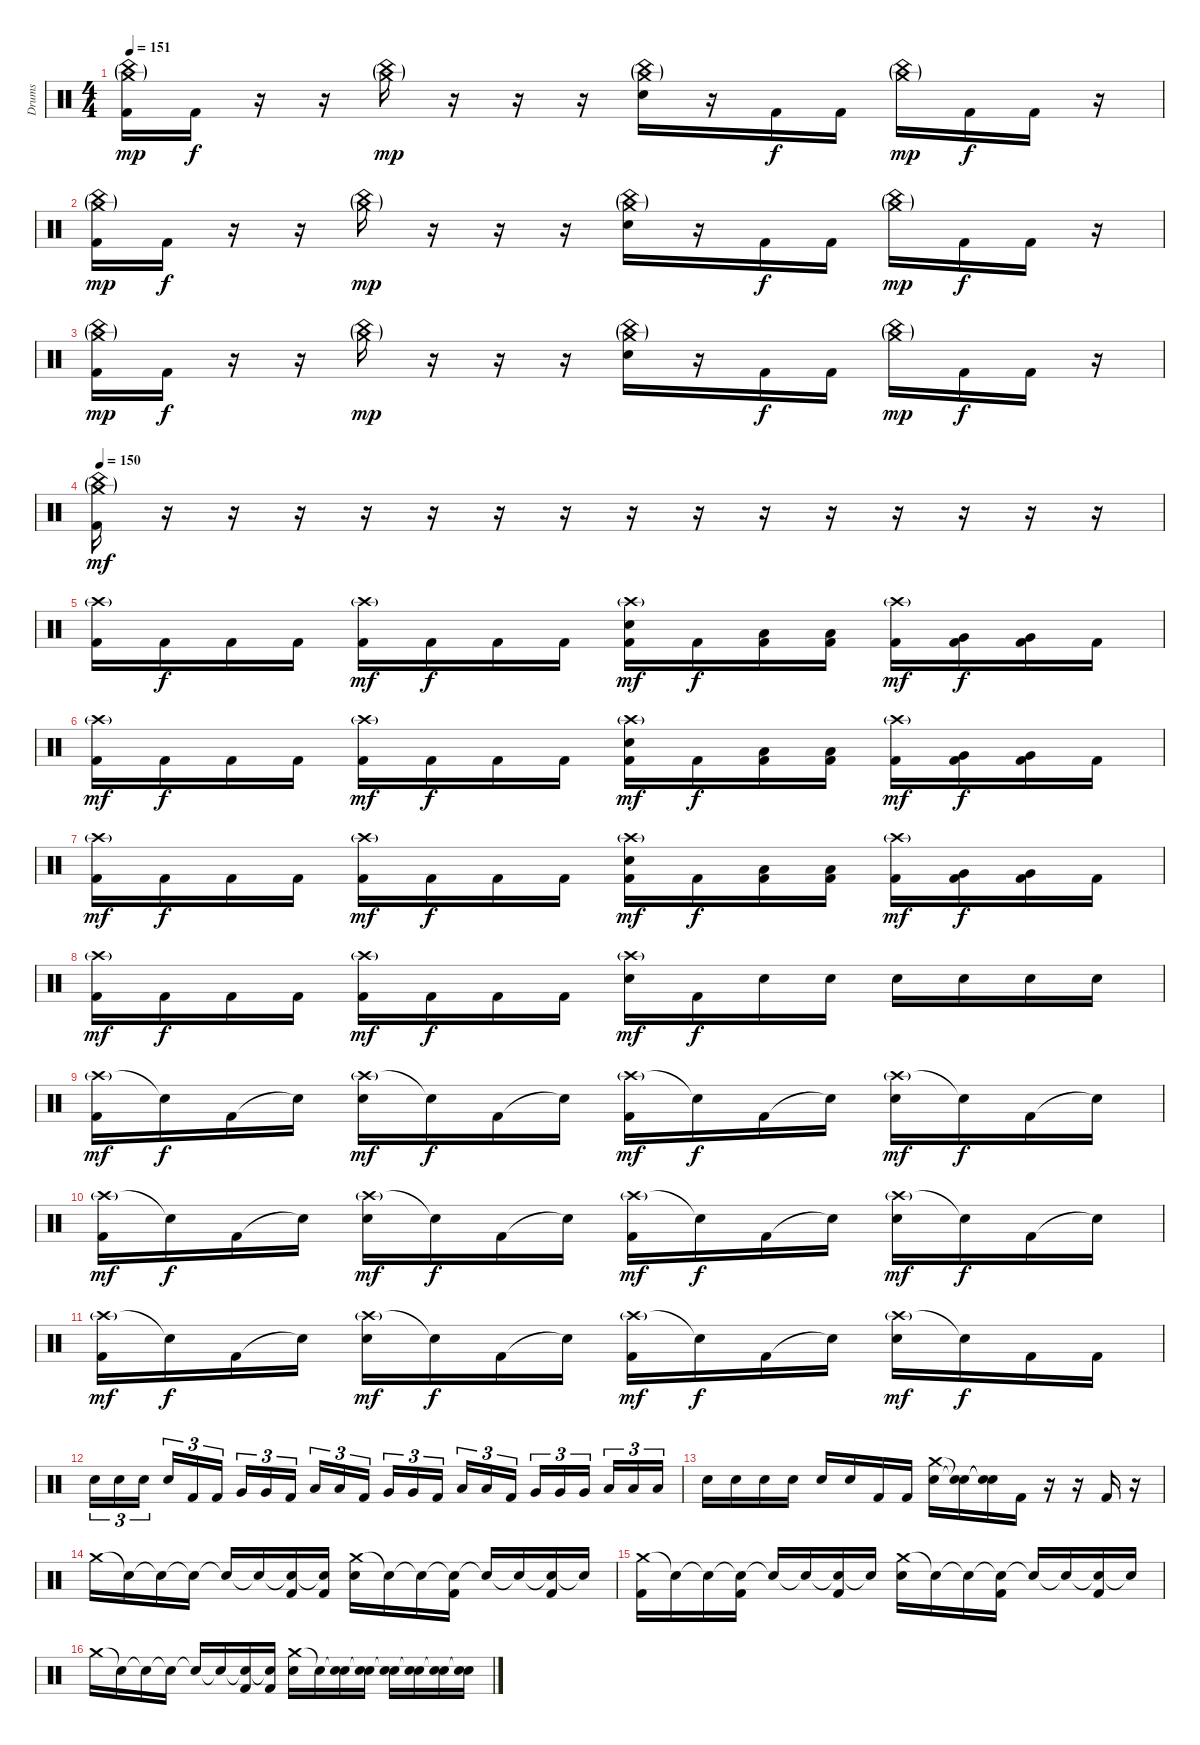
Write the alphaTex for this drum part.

\track ("Drums" "Drums") {instrument percussion}
\staff {score}
\articulation defaults
\ts (4 4)
\tempo 151
\clef neutral
\ks c
("China (hit)"{g} "Crash medium (hit)"{g} "Kick (hit) 2").16{dy mp} "Kick (hit) 2".16{dy f} r.16 r.16 ("China (hit)"{g} "Crash medium (hit)"{g}).16{dy mp} r.16 r.16 r.16 ("China (hit)"{g} "Crash medium (hit)"{g} "Electric Snare (hit)").16 r.16 "Kick (hit) 2".16{dy f} "Kick (hit) 2".16 ("China (hit)"{g} "Crash medium (hit)"{g}).16{dy mp} "Kick (hit) 2".16{dy f} "Kick (hit) 2".16 r.16 |
("China (hit)"{g} "Crash medium (hit)"{g} "Kick (hit) 2").16{dy mp} "Kick (hit) 2".16{dy f} r.16 r.16 ("China (hit)"{g} "Crash medium (hit)"{g}).16{dy mp} r.16 r.16 r.16 ("China (hit)"{g} "Crash medium (hit)"{g} "Electric Snare (hit)").16 r.16 "Kick (hit) 2".16{dy f} "Kick (hit) 2".16 ("China (hit)"{g} "Crash medium (hit)"{g}).16{dy mp} "Kick (hit) 2".16{dy f} "Kick (hit) 2".16 r.16 |
("China (hit)"{g} "Crash medium (hit)"{g} "Kick (hit) 2").16{dy mp} "Kick (hit) 2".16{dy f} r.16 r.16 ("China (hit)"{g} "Crash medium (hit)"{g}).16{dy mp} r.16 r.16 r.16 ("China (hit)"{g} "Crash medium (hit)"{g} "Electric Snare (hit)").16 r.16 "Kick (hit) 2".16{dy f} "Kick (hit) 2".16 ("China (hit)"{g} "Crash medium (hit)"{g}).16{dy mp} "Kick (hit) 2".16{dy f} "Kick (hit) 2".16 r.16 |
\tempo 150
("China (hit)"{g} "Crash medium (hit)"{g} "Kick (hit) 2").16{dy mf} r.16 r.16 r.16 r.16 r.16 r.16 r.16 r.16 r.16 r.16 r.16 r.16 r.16 r.16 r.16 |
("Crash high (hit)"{g} "Kick (hit) 2").16 "Kick (hit) 2".16{dy f} "Kick (hit) 2".16 "Kick (hit) 2".16 ("Crash high (hit)"{g} "Kick (hit) 2").16{dy mf} "Kick (hit) 2".16{dy f} "Kick (hit) 2".16 "Kick (hit) 2".16 ("Crash high (hit)"{g} "Electric Snare (hit)" "Kick (hit) 2").16{dy mf} "Kick (hit) 2".16{dy f} ("Low Tom (hit)" "Kick (hit) 2").16 ("Low Tom (hit)" "Kick (hit) 2").16 ("Crash high (hit)"{g} "Kick (hit) 2").16{dy mf} ("Very Low Tom (hit)" "Kick (hit) 2").16{dy f} ("Very Low Tom (hit)" "Kick (hit) 2").16 "Kick (hit) 2".16 |
("Crash high (hit)"{g} "Kick (hit) 2").16{dy mf} "Kick (hit) 2".16{dy f} "Kick (hit) 2".16 "Kick (hit) 2".16 ("Crash high (hit)"{g} "Kick (hit) 2").16{dy mf} "Kick (hit) 2".16{dy f} "Kick (hit) 2".16 "Kick (hit) 2".16 ("Crash high (hit)"{g} "Electric Snare (hit)" "Kick (hit) 2").16{dy mf} "Kick (hit) 2".16{dy f} ("Low Tom (hit)" "Kick (hit) 2").16 ("Low Tom (hit)" "Kick (hit) 2").16 ("Crash high (hit)"{g} "Kick (hit) 2").16{dy mf} ("Very Low Tom (hit)" "Kick (hit) 2").16{dy f} ("Very Low Tom (hit)" "Kick (hit) 2").16 "Kick (hit) 2".16 |
("Crash high (hit)"{g} "Kick (hit) 2").16{dy mf} "Kick (hit) 2".16{dy f} "Kick (hit) 2".16 "Kick (hit) 2".16 ("Crash high (hit)"{g} "Kick (hit) 2").16{dy mf} "Kick (hit) 2".16{dy f} "Kick (hit) 2".16 "Kick (hit) 2".16 ("Crash high (hit)"{g} "Electric Snare (hit)" "Kick (hit) 2").16{dy mf} "Kick (hit) 2".16{dy f} ("Low Tom (hit)" "Kick (hit) 2").16 ("Low Tom (hit)" "Kick (hit) 2").16 ("Crash high (hit)"{g} "Kick (hit) 2").16{dy mf} ("Very Low Tom (hit)" "Kick (hit) 2").16{dy f} ("Very Low Tom (hit)" "Kick (hit) 2").16 "Kick (hit) 2".16 |
("Crash high (hit)"{g} "Kick (hit) 2").16{dy mf} "Kick (hit) 2".16{dy f} "Kick (hit) 2".16 "Kick (hit) 2".16 ("Crash high (hit)"{g} "Kick (hit) 2").16{dy mf} "Kick (hit) 2".16{dy f} "Kick (hit) 2".16 "Kick (hit) 2".16 ("Crash high (hit)"{g} "Electric Snare (hit)").16{dy mf} "Kick (hit) 2".16{dy f} "Electric Snare (hit)".16 "Electric Snare (hit)".16 "Electric Snare (hit)".16 "Electric Snare (hit)".16 "Electric Snare (hit)".16 "Electric Snare (hit)".16 |
("Crash high (hit)"{g} "Kick (hit) 2").16{dy mf} "Snare (hit)"{t}.16{dy f} "Kick (hit) 2".16 "Snare (hit)"{t}.16 ("Crash high (hit)"{g} "Electric Snare (hit)").16{dy mf} "Snare (hit)"{t}.16{dy f} "Kick (hit) 2".16 "Snare (hit)"{t}.16 ("Crash high (hit)"{g} "Kick (hit) 2").16{dy mf} "Snare (hit)"{t}.16{dy f} "Kick (hit) 2".16 "Snare (hit)"{t}.16 ("Crash high (hit)"{g} "Electric Snare (hit)").16{dy mf} "Snare (hit)"{t}.16{dy f} "Kick (hit) 2".16 "Snare (hit)"{t}.16 |
("Crash high (hit)"{g} "Kick (hit) 2").16{dy mf} "Snare (hit)"{t}.16{dy f} "Kick (hit) 2".16 "Snare (hit)"{t}.16 ("Crash high (hit)"{g} "Electric Snare (hit)").16{dy mf} "Snare (hit)"{t}.16{dy f} "Kick (hit) 2".16 "Snare (hit)"{t}.16 ("Crash high (hit)"{g} "Kick (hit) 2").16{dy mf} "Snare (hit)"{t}.16{dy f} "Kick (hit) 2".16 "Snare (hit)"{t}.16 ("Crash high (hit)"{g} "Electric Snare (hit)").16{dy mf} "Snare (hit)"{t}.16{dy f} "Kick (hit) 2".16 "Snare (hit)"{t}.16 |
("Crash high (hit)"{g} "Kick (hit) 2").16{dy mf} "Snare (hit)"{t}.16{dy f} "Kick (hit) 2".16 "Snare (hit)"{t}.16 ("Crash high (hit)"{g} "Electric Snare (hit)").16{dy mf} "Snare (hit)"{t}.16{dy f} "Kick (hit) 2".16 "Snare (hit)"{t}.16 ("Crash high (hit)"{g} "Kick (hit) 2").16{dy mf} "Snare (hit)"{t}.16{dy f} "Kick (hit) 2".16 "Snare (hit)"{t}.16 ("Crash high (hit)"{g} "Electric Snare (hit)").16{dy mf} "Snare (hit)"{t}.16{dy f} "Kick (hit) 2".16 "Kick (hit) 2".16 |
"Electric Snare (hit)".16{tu (3 2)} "Electric Snare (hit)".16{tu (3 2)} "Electric Snare (hit)".16{tu (3 2) beam splitsecondary} "Electric Snare (hit)".16{tu (3 2)} "Kick (hit) 2".16{tu (3 2)} "Kick (hit) 2".16{tu (3 2)} "Very Low Tom (hit)".16{tu (3 2)} "Very Low Tom (hit)".16{tu (3 2)} "Kick (hit) 2".16{tu (3 2) beam splitsecondary} "Low Floor Tom (hit)".16{tu (3 2)} "Low Floor Tom (hit)".16{tu (3 2)} "Kick (hit) 2".16{tu (3 2)} "Very Low Tom (hit)".16{tu (3 2)} "Very Low Tom (hit)".16{tu (3 2)} "Kick (hit) 2".16{tu (3 2) beam splitsecondary} "Low Floor Tom (hit)".16{tu (3 2)} "Low Floor Tom (hit)".16{tu (3 2)} "Kick (hit) 2".16{tu (3 2)} "Very Low Tom (hit)".16{tu (3 2)} "Very Low Tom (hit)".16{tu (3 2)} "Very Low Tom (hit)".16{tu (3 2) beam splitsecondary} "Low Floor Tom (hit)".16{tu (3 2)} "Low Floor Tom (hit)".16{tu (3 2)} "Low Floor Tom (hit)".16{tu (3 2)} |
"Electric Snare (hit)".16 "Electric Snare (hit)".16 "Electric Snare (hit)".16 "Electric Snare (hit)".16 "Electric Snare (hit)".16 "Electric Snare (hit)".16 "Kick (hit) 2".16 "Kick (hit) 2".16 ("Crash medium (hit)" "Electric Snare (hit)").16 ("Snare (hit)"{t} "Snare (hit)"{t}).16 ("Snare (hit)"{t} "Snare (hit)"{t}).16 "Kick (hit) 2".16 r.16 r.16 "Kick (hit) 2".16 r.16 |
"Crash medium (hit)".16 "Snare (hit)"{t}.16 "Snare (hit)"{t}.16 "Snare (hit)"{t}.16 "Snare (hit)"{t}.16 "Snare (hit)"{t}.16 ("Snare (hit)"{t} "Kick (hit) 2").16 ("Snare (hit)"{t} "Kick (hit) 2").16 ("Crash medium (hit)" "Electric Snare (hit)").16 "Snare (hit)"{t}.16 "Snare (hit)"{t}.16 ("Snare (hit)"{t} "Kick (hit) 2").16 "Snare (hit)"{t}.16 "Snare (hit)"{t}.16 ("Snare (hit)"{t} "Kick (hit) 2").16 "Snare (hit)"{t}.16 |
("Crash medium (hit)" "Kick (hit) 2").16 "Snare (hit)"{t}.16 "Snare (hit)"{t}.16 ("Snare (hit)"{t} "Kick (hit) 2").16 "Snare (hit)"{t}.16 "Snare (hit)"{t}.16 ("Snare (hit)"{t} "Kick (hit) 2").16 "Snare (hit)"{t}.16 ("Crash medium (hit)" "Electric Snare (hit)").16 "Snare (hit)"{t}.16 "Snare (hit)"{t}.16 ("Snare (hit)"{t} "Kick (hit) 2").16 "Snare (hit)"{t}.16 "Snare (hit)"{t}.16 ("Snare (hit)"{t} "Kick (hit) 2").16 "Snare (hit)"{t}.16 |
"Crash medium (hit)".16 "Snare (hit)"{t}.16 "Snare (hit)"{t}.16 "Snare (hit)"{t}.16 "Snare (hit)"{t}.16 "Snare (hit)"{t}.16 ("Snare (hit)"{t} "Kick (hit) 2").16 ("Snare (hit)"{t} "Kick (hit) 2").16 ("Crash medium (hit)" "Electric Snare (hit)").16 "Snare (hit)"{t}.16 ("Snare (hit)"{t} "Electric Snare (hit)").16 ("Snare (hit)"{t} "Electric Snare (hit)").16 ("Snare (hit)"{t} "Electric Snare (hit)").16 ("Snare (hit)"{t} "Electric Snare (hit)").16 ("Snare (hit)"{t} "Electric Snare (hit)").16 ("Snare (hit)"{t} "Electric Snare (hit)").16
